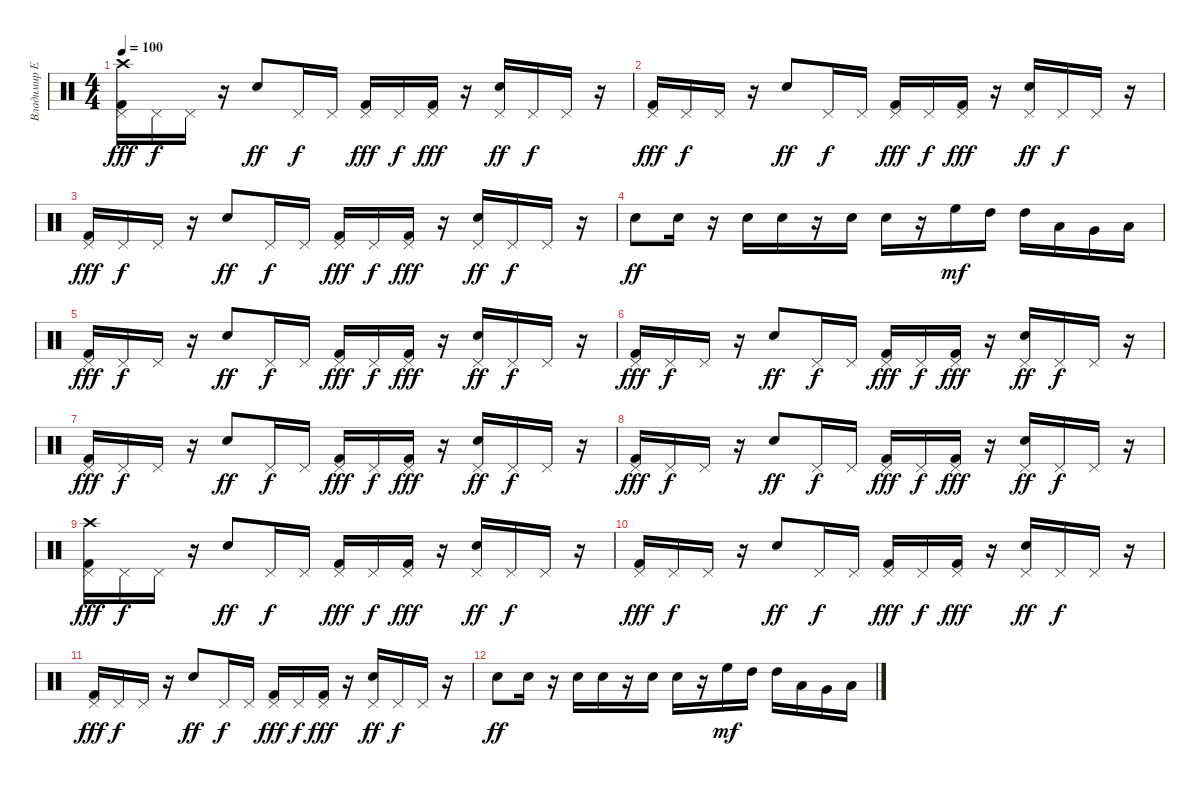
\track ("Владимир Ермаков" "Владимир Е") {instrument percussion}
\staff {score}
\articulation defaults
\ts (4 4)
\tempo 100
\clef neutral
\ks c
("Crash high (hit)" "Kick (hit) 2" "Pedal Hi-Hat (hit)").16{dy fff} "Pedal Hi-Hat (hit)".16{dy f} "Pedal Hi-Hat (hit)".16 r.16 "Electric Snare (hit)".8{dy ff} "Pedal Hi-Hat (hit)".16{dy f} "Pedal Hi-Hat (hit)".16 ("Kick (hit) 2" "Pedal Hi-Hat (hit)").16{dy fff} "Pedal Hi-Hat (hit)".16{dy f} ("Kick (hit) 2" "Pedal Hi-Hat (hit)").16{dy fff} r.16 ("Electric Snare (hit)" "Pedal Hi-Hat (hit)").16{dy ff} "Pedal Hi-Hat (hit)".16{dy f} "Pedal Hi-Hat (hit)".16 r.16 |
("Kick (hit) 2" "Pedal Hi-Hat (hit)").16{dy fff} "Pedal Hi-Hat (hit)".16{dy f} "Pedal Hi-Hat (hit)".16 r.16 "Electric Snare (hit)".8{dy ff} "Pedal Hi-Hat (hit)".16{dy f} "Pedal Hi-Hat (hit)".16 ("Kick (hit) 2" "Pedal Hi-Hat (hit)").16{dy fff} "Pedal Hi-Hat (hit)".16{dy f} ("Kick (hit) 2" "Pedal Hi-Hat (hit)").16{dy fff} r.16 ("Electric Snare (hit)" "Pedal Hi-Hat (hit)").16{dy ff} "Pedal Hi-Hat (hit)".16{dy f} "Pedal Hi-Hat (hit)".16 r.16 |
("Kick (hit) 2" "Pedal Hi-Hat (hit)").16{dy fff} "Pedal Hi-Hat (hit)".16{dy f} "Pedal Hi-Hat (hit)".16 r.16 "Electric Snare (hit)".8{dy ff} "Pedal Hi-Hat (hit)".16{dy f} "Pedal Hi-Hat (hit)".16 ("Kick (hit) 2" "Pedal Hi-Hat (hit)").16{dy fff} "Pedal Hi-Hat (hit)".16{dy f} ("Kick (hit) 2" "Pedal Hi-Hat (hit)").16{dy fff} r.16 ("Electric Snare (hit)" "Pedal Hi-Hat (hit)").16{dy ff} "Pedal Hi-Hat (hit)".16{dy f} "Pedal Hi-Hat (hit)".16 r.16 |
"Electric Snare (hit)".8{dy ff} "Electric Snare (hit)".16 r.16 "Electric Snare (hit)".16 "Electric Snare (hit)".16 r.16 "Electric Snare (hit)".16 "Electric Snare (hit)".16 r.16 "High Floor Tom (hit)".16{dy mf} "High Tom (hit)".16 "High Tom (hit)".16 "Low Tom (hit)".16 "Very Low Tom (hit)".16 "Low Floor Tom (hit)".16 |
("Kick (hit) 2" "Pedal Hi-Hat (hit)").16{dy fff} "Pedal Hi-Hat (hit)".16{dy f} "Pedal Hi-Hat (hit)".16 r.16 "Electric Snare (hit)".8{dy ff} "Pedal Hi-Hat (hit)".16{dy f} "Pedal Hi-Hat (hit)".16 ("Kick (hit) 2" "Pedal Hi-Hat (hit)").16{dy fff} "Pedal Hi-Hat (hit)".16{dy f} ("Kick (hit) 2" "Pedal Hi-Hat (hit)").16{dy fff} r.16 ("Electric Snare (hit)" "Pedal Hi-Hat (hit)").16{dy ff} "Pedal Hi-Hat (hit)".16{dy f} "Pedal Hi-Hat (hit)".16 r.16 |
("Kick (hit) 2" "Pedal Hi-Hat (hit)").16{dy fff} "Pedal Hi-Hat (hit)".16{dy f} "Pedal Hi-Hat (hit)".16 r.16 "Electric Snare (hit)".8{dy ff} "Pedal Hi-Hat (hit)".16{dy f} "Pedal Hi-Hat (hit)".16 ("Kick (hit) 2" "Pedal Hi-Hat (hit)").16{dy fff} "Pedal Hi-Hat (hit)".16{dy f} ("Kick (hit) 2" "Pedal Hi-Hat (hit)").16{dy fff} r.16 ("Electric Snare (hit)" "Pedal Hi-Hat (hit)").16{dy ff} "Pedal Hi-Hat (hit)".16{dy f} "Pedal Hi-Hat (hit)".16 r.16 |
("Kick (hit) 2" "Pedal Hi-Hat (hit)").16{dy fff} "Pedal Hi-Hat (hit)".16{dy f} "Pedal Hi-Hat (hit)".16 r.16 "Electric Snare (hit)".8{dy ff} "Pedal Hi-Hat (hit)".16{dy f} "Pedal Hi-Hat (hit)".16 ("Kick (hit) 2" "Pedal Hi-Hat (hit)").16{dy fff} "Pedal Hi-Hat (hit)".16{dy f} ("Kick (hit) 2" "Pedal Hi-Hat (hit)").16{dy fff} r.16 ("Electric Snare (hit)" "Pedal Hi-Hat (hit)").16{dy ff} "Pedal Hi-Hat (hit)".16{dy f} "Pedal Hi-Hat (hit)".16 r.16 |
("Kick (hit) 2" "Pedal Hi-Hat (hit)").16{dy fff} "Pedal Hi-Hat (hit)".16{dy f} "Pedal Hi-Hat (hit)".16 r.16 "Electric Snare (hit)".8{dy ff} "Pedal Hi-Hat (hit)".16{dy f} "Pedal Hi-Hat (hit)".16 ("Kick (hit) 2" "Pedal Hi-Hat (hit)").16{dy fff} "Pedal Hi-Hat (hit)".16{dy f} ("Kick (hit) 2" "Pedal Hi-Hat (hit)").16{dy fff} r.16 ("Electric Snare (hit)" "Pedal Hi-Hat (hit)").16{dy ff} "Pedal Hi-Hat (hit)".16{dy f} "Pedal Hi-Hat (hit)".16 r.16 |
("Crash high (hit)" "Kick (hit) 2" "Pedal Hi-Hat (hit)").16{dy fff} "Pedal Hi-Hat (hit)".16{dy f} "Pedal Hi-Hat (hit)".16 r.16 "Electric Snare (hit)".8{dy ff} "Pedal Hi-Hat (hit)".16{dy f} "Pedal Hi-Hat (hit)".16 ("Kick (hit) 2" "Pedal Hi-Hat (hit)").16{dy fff} "Pedal Hi-Hat (hit)".16{dy f} ("Kick (hit) 2" "Pedal Hi-Hat (hit)").16{dy fff} r.16 ("Electric Snare (hit)" "Pedal Hi-Hat (hit)").16{dy ff} "Pedal Hi-Hat (hit)".16{dy f} "Pedal Hi-Hat (hit)".16 r.16 |
("Kick (hit) 2" "Pedal Hi-Hat (hit)").16{dy fff volume 4} "Pedal Hi-Hat (hit)".16{dy f} "Pedal Hi-Hat (hit)".16 r.16 "Electric Snare (hit)".8{dy ff} "Pedal Hi-Hat (hit)".16{dy f} "Pedal Hi-Hat (hit)".16 ("Kick (hit) 2" "Pedal Hi-Hat (hit)").16{dy fff} "Pedal Hi-Hat (hit)".16{dy f} ("Kick (hit) 2" "Pedal Hi-Hat (hit)").16{dy fff} r.16 ("Electric Snare (hit)" "Pedal Hi-Hat (hit)").16{dy ff} "Pedal Hi-Hat (hit)".16{dy f} "Pedal Hi-Hat (hit)".16 r.16 |
("Kick (hit) 2" "Pedal Hi-Hat (hit)").16{dy fff} "Pedal Hi-Hat (hit)".16{dy f} "Pedal Hi-Hat (hit)".16 r.16 "Electric Snare (hit)".8{dy ff} "Pedal Hi-Hat (hit)".16{dy f} "Pedal Hi-Hat (hit)".16 ("Kick (hit) 2" "Pedal Hi-Hat (hit)").16{dy fff} "Pedal Hi-Hat (hit)".16{dy f} ("Kick (hit) 2" "Pedal Hi-Hat (hit)").16{dy fff} r.16 ("Electric Snare (hit)" "Pedal Hi-Hat (hit)").16{dy ff} "Pedal Hi-Hat (hit)".16{dy f} "Pedal Hi-Hat (hit)".16 r.16 |
"Electric Snare (hit)".8{dy ff volume 1} "Electric Snare (hit)".16 r.16 "Electric Snare (hit)".16 "Electric Snare (hit)".16 r.16 "Electric Snare (hit)".16 "Electric Snare (hit)".16 r.16 "High Floor Tom (hit)".16{dy mf} "High Tom (hit)".16 "High Tom (hit)".16 "Low Tom (hit)".16 "Very Low Tom (hit)".16 "Low Floor Tom (hit)".16
